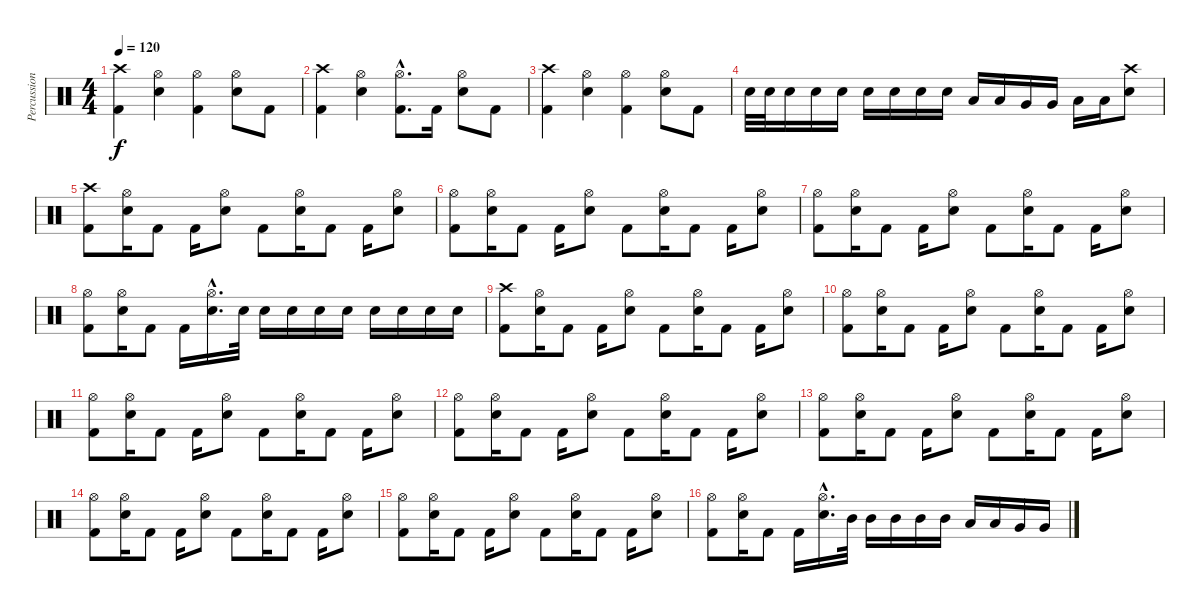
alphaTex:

\track ("Percussion" "Percussion") {instrument percussion}
\staff {score}
\articulation defaults
\ts (4 4)
\tempo 120
\clef neutral
\ks c
("Crash high (hit)" "Kick (hit) 2").4{dy f} ("Hi-Hat (open)" "Snare (hit) 2").4 ("Hi-Hat (open)" "Kick (hit) 2").4 ("Hi-Hat (open)" "Snare (hit) 2").8 "Kick (hit) 2".8 |
("Crash high (hit)" "Kick (hit) 2").4 ("Hi-Hat (open)" "Snare (hit) 2").4 ("Hi-Hat (open)"{hac} "Kick (hit) 2"{hac}).8{d} "Kick (hit) 2".16 ("Hi-Hat (open)" "Snare (hit) 2").8 "Kick (hit) 2".8 |
("Crash high (hit)" "Kick (hit) 2").4 ("Hi-Hat (open)" "Snare (hit) 2").4 ("Hi-Hat (open)" "Kick (hit) 2").4 ("Hi-Hat (open)" "Snare (hit) 2").8 "Kick (hit) 2".8 |
"Snare (hit) 2".32 "Snare (hit) 2".32 "Snare (hit) 2".16 "Snare (hit) 2".16 "Snare (hit) 2".16 "Snare (hit) 2".16 "Snare (hit) 2".16 "Snare (hit) 2".16 "Snare (hit) 2".16 "Low Tom (hit)".16 "Low Tom (hit)".16 "Very Low Tom (hit)".16 "Very Low Tom (hit)".16 "Low Floor Tom (hit)".16 "Low Floor Tom (hit)".16 ("Crash high (hit)" "Snare (hit) 2").8 |
("Crash high (hit)" "Kick (hit) 2").8 ("Hi-Hat (open)" "Snare (hit) 2").16 "Kick (hit) 2".8 "Kick (hit) 2".16 ("Hi-Hat (open)" "Snare (hit) 2").8 "Kick (hit) 2".8 ("Hi-Hat (open)" "Snare (hit) 2").16 "Kick (hit) 2".8 "Kick (hit) 2".16 ("Hi-Hat (open)" "Snare (hit) 2").8 |
("Hi-Hat (open)" "Kick (hit) 2").8 ("Hi-Hat (open)" "Snare (hit) 2").16 "Kick (hit) 2".8 "Kick (hit) 2".16 ("Hi-Hat (open)" "Snare (hit) 2").8 "Kick (hit) 2".8 ("Hi-Hat (open)" "Snare (hit) 2").16 "Kick (hit) 2".8 "Kick (hit) 2".16 ("Hi-Hat (open)" "Snare (hit) 2").8 |
("Hi-Hat (open)" "Kick (hit) 2").8 ("Hi-Hat (open)" "Snare (hit) 2").16 "Kick (hit) 2".8 "Kick (hit) 2".16 ("Hi-Hat (open)" "Snare (hit) 2").8 "Kick (hit) 2".8 ("Hi-Hat (open)" "Snare (hit) 2").16 "Kick (hit) 2".8 "Kick (hit) 2".16 ("Hi-Hat (open)" "Snare (hit) 2").8 |
("Hi-Hat (open)" "Kick (hit) 2").8 ("Hi-Hat (open)" "Snare (hit) 2").16 "Kick (hit) 2".8 "Kick (hit) 2".16 ("Hi-Hat (open)"{hac} "Snare (hit) 2"{hac}).16{d} "Snare (hit) 2".32 "Snare (hit) 2".16 "Snare (hit) 2".16 "Snare (hit) 2".16 "Snare (hit) 2".16 "Snare (hit) 2".16 "Snare (hit) 2".16 "Snare (hit) 2".16 "Snare (hit) 2".16 |
("Crash high (hit)" "Kick (hit) 2").8 ("Hi-Hat (open)" "Snare (hit) 2").16 "Kick (hit) 2".8 "Kick (hit) 2".16 ("Hi-Hat (open)" "Snare (hit) 2").8 "Kick (hit) 2".8 ("Hi-Hat (open)" "Snare (hit) 2").16 "Kick (hit) 2".8 "Kick (hit) 2".16 ("Hi-Hat (open)" "Snare (hit) 2").8 |
("Hi-Hat (open)" "Kick (hit) 2").8 ("Hi-Hat (open)" "Snare (hit) 2").16 "Kick (hit) 2".8 "Kick (hit) 2".16 ("Hi-Hat (open)" "Snare (hit) 2").8 "Kick (hit) 2".8 ("Hi-Hat (open)" "Snare (hit) 2").16 "Kick (hit) 2".8 "Kick (hit) 2".16 ("Hi-Hat (open)" "Snare (hit) 2").8 |
("Hi-Hat (open)" "Kick (hit) 2").8 ("Hi-Hat (open)" "Snare (hit) 2").16 "Kick (hit) 2".8 "Kick (hit) 2".16 ("Hi-Hat (open)" "Snare (hit) 2").8 "Kick (hit) 2".8 ("Hi-Hat (open)" "Snare (hit) 2").16 "Kick (hit) 2".8 "Kick (hit) 2".16 ("Hi-Hat (open)" "Snare (hit) 2").8 |
("Hi-Hat (open)" "Kick (hit) 2").8 ("Hi-Hat (open)" "Snare (hit) 2").16 "Kick (hit) 2".8 "Kick (hit) 2".16 ("Hi-Hat (open)" "Snare (hit) 2").8 "Kick (hit) 2".8 ("Hi-Hat (open)" "Snare (hit) 2").16 "Kick (hit) 2".8 "Kick (hit) 2".16 ("Hi-Hat (open)" "Snare (hit) 2").8 |
("Hi-Hat (open)" "Kick (hit) 2").8 ("Hi-Hat (open)" "Snare (hit) 2").16 "Kick (hit) 2".8 "Kick (hit) 2".16 ("Hi-Hat (open)" "Snare (hit) 2").8 "Kick (hit) 2".8 ("Hi-Hat (open)" "Snare (hit) 2").16 "Kick (hit) 2".8 "Kick (hit) 2".16 ("Hi-Hat (open)" "Snare (hit) 2").8 |
("Hi-Hat (open)" "Kick (hit) 2").8 ("Hi-Hat (open)" "Snare (hit) 2").16 "Kick (hit) 2".8 "Kick (hit) 2".16 ("Hi-Hat (open)" "Snare (hit) 2").8 "Kick (hit) 2".8 ("Hi-Hat (open)" "Snare (hit) 2").16 "Kick (hit) 2".8 "Kick (hit) 2".16 ("Hi-Hat (open)" "Snare (hit) 2").8 |
("Hi-Hat (open)" "Kick (hit) 2").8 ("Hi-Hat (open)" "Snare (hit) 2").16 "Kick (hit) 2".8 "Kick (hit) 2".16 ("Hi-Hat (open)" "Snare (hit) 2").8 "Kick (hit) 2".8 ("Hi-Hat (open)" "Snare (hit) 2").16 "Kick (hit) 2".8 "Kick (hit) 2".16 ("Hi-Hat (open)" "Snare (hit) 2").8 |
("Hi-Hat (open)" "Kick (hit) 2").8 ("Hi-Hat (open)" "Snare (hit) 2").16 "Kick (hit) 2".8 "Kick (hit) 2".16 ("Hi-Hat (open)"{hac} "Snare (hit) 2"{hac}).16{d} "Mid Tom (hit)".32 "Mid Tom (hit)".16 "Mid Tom (hit)".16 "Mid Tom (hit)".16 "Mid Tom (hit)".16 "Low Tom (hit)".16 "Low Tom (hit)".16 "Very Low Tom (hit)".16 "Very Low Tom (hit)".16
